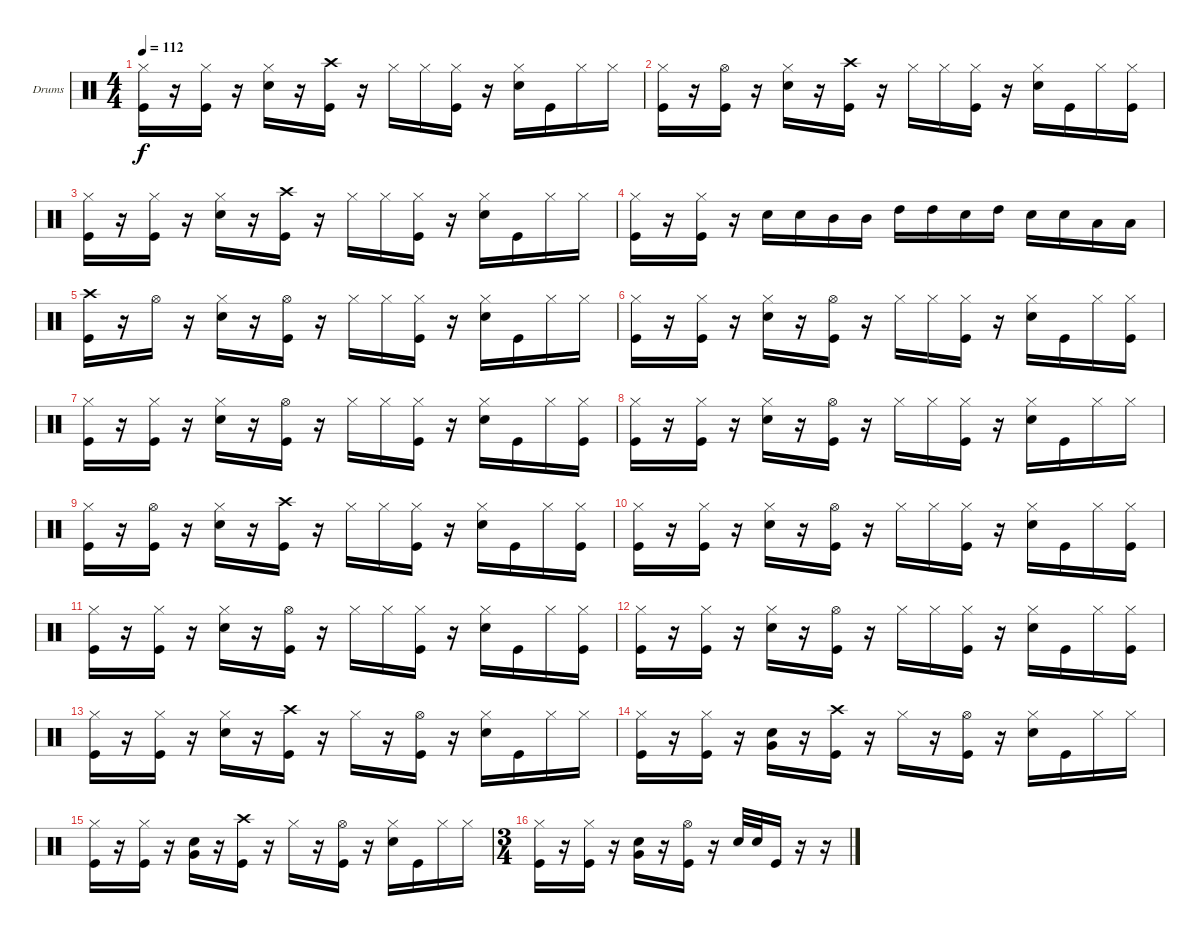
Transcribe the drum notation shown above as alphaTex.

\bracketExtendMode groupsimilarinstruments
\firstSystemTrackNameOrientation horizontal
\otherSystemsTrackNameOrientation horizontal
\track ("Drumkit" "Drums") {instrument percussion}
\staff {score}
\articulation defaults
\ts (4 4)
\tempo 112
\clef neutral
\ks c
("Hi-Hat (closed)" "Kick (hit)").16{dy f} r.16 ("Hi-Hat (closed)" "Kick (hit)").16 r.16 ("Hi-Hat (closed)" "Snare (hit) 2").16 r.16 ("Crash high (hit)" "Kick (hit)").16 r.16 "Hi-Hat (closed)".16 "Hi-Hat (closed)".16 ("Hi-Hat (closed)" "Kick (hit)").16 r.16 ("Hi-Hat (closed)" "Snare (hit) 2").16 "Kick (hit)".16 "Hi-Hat (closed)".16 "Hi-Hat (closed)".16 |
("Hi-Hat (closed)" "Kick (hit)").16 r.16 ("Hi-Hat (open)" "Kick (hit)").16 r.16 ("Hi-Hat (closed)" "Snare (hit) 2").16 r.16 ("Crash high (hit)" "Kick (hit)").16 r.16 "Hi-Hat (closed)".16 "Hi-Hat (closed)".16 ("Hi-Hat (closed)" "Kick (hit)").16 r.16 ("Hi-Hat (closed)" "Snare (hit) 2").16 "Kick (hit)".16 "Hi-Hat (closed)".16 ("Hi-Hat (closed)" "Kick (hit)").16 |
("Hi-Hat (closed)" "Kick (hit)").16 r.16 ("Hi-Hat (closed)" "Kick (hit)").16 r.16 ("Hi-Hat (closed)" "Snare (hit) 2").16 r.16 ("Crash high (hit)" "Kick (hit)").16 r.16 "Hi-Hat (closed)".16 "Hi-Hat (closed)".16 ("Hi-Hat (closed)" "Kick (hit)").16 r.16 ("Hi-Hat (closed)" "Snare (hit) 2").16 "Kick (hit)".16 "Hi-Hat (closed)".16 "Hi-Hat (closed)".16 |
("Hi-Hat (closed)" "Kick (hit)").16 r.16 ("Hi-Hat (closed)" "Kick (hit)").16 r.16 "Snare (hit) 2".16 "Snare (hit) 2".16 "Mid Tom (hit)".16 "Mid Tom (hit)".16 "High Tom (hit)".16 "High Tom (hit)".16 "Snare (hit) 2".16 "High Tom (hit)".16 "Snare (hit) 2".16 "Snare (hit) 2".16 "Low Tom (hit)".16 "Low Tom (hit)".16 |
("Crash high (hit)" "Kick (hit)").16 r.16 "Hi-Hat (open)".16 r.16 ("Hi-Hat (closed)" "Snare (hit) 2").16 r.16 ("Hi-Hat (open)" "Kick (hit)").16 r.16 "Hi-Hat (closed)".16 "Hi-Hat (closed)".16 ("Hi-Hat (closed)" "Kick (hit)").16 r.16 ("Hi-Hat (closed)" "Snare (hit) 2").16 "Kick (hit)".16 "Hi-Hat (closed)".16 "Hi-Hat (closed)".16 |
("Hi-Hat (closed)" "Kick (hit)").16 r.16 ("Hi-Hat (closed)" "Kick (hit)").16 r.16 ("Hi-Hat (closed)" "Snare (hit) 2").16 r.16 ("Hi-Hat (open)" "Kick (hit)").16 r.16 "Hi-Hat (closed)".16 "Hi-Hat (closed)".16 ("Hi-Hat (closed)" "Kick (hit)").16 r.16 ("Hi-Hat (closed)" "Snare (hit) 2").16 "Kick (hit)".16 "Hi-Hat (closed)".16 ("Hi-Hat (closed)" "Kick (hit)").16 |
("Hi-Hat (closed)" "Kick (hit)").16 r.16 ("Hi-Hat (closed)" "Kick (hit)").16 r.16 ("Hi-Hat (closed)" "Snare (hit) 2").16 r.16 ("Hi-Hat (open)" "Kick (hit)").16 r.16 "Hi-Hat (closed)".16 "Hi-Hat (closed)".16 ("Hi-Hat (closed)" "Kick (hit)").16 r.16 ("Hi-Hat (closed)" "Snare (hit) 2").16 "Kick (hit)".16 "Hi-Hat (closed)".16 ("Hi-Hat (closed)" "Kick (hit)").16 |
("Hi-Hat (closed)" "Kick (hit)").16 r.16 ("Hi-Hat (closed)" "Kick (hit)").16 r.16 ("Hi-Hat (closed)" "Snare (hit) 2").16 r.16 ("Hi-Hat (open)" "Kick (hit)").16 r.16 "Hi-Hat (closed)".16 "Hi-Hat (closed)".16 ("Hi-Hat (closed)" "Kick (hit)").16 r.16 ("Hi-Hat (closed)" "Snare (hit) 2").16 "Kick (hit)".16 "Hi-Hat (closed)".16 "Hi-Hat (closed)".16 |
("Hi-Hat (closed)" "Kick (hit)").16 r.16 ("Hi-Hat (open)" "Kick (hit)").16 r.16 ("Hi-Hat (closed)" "Snare (hit) 2").16 r.16 ("Crash high (hit)" "Kick (hit)").16 r.16 "Hi-Hat (closed)".16 "Hi-Hat (closed)".16 ("Hi-Hat (closed)" "Kick (hit)").16 r.16 ("Hi-Hat (closed)" "Snare (hit) 2").16 "Kick (hit)".16 "Hi-Hat (closed)".16 ("Hi-Hat (closed)" "Kick (hit)").16 |
("Hi-Hat (closed)" "Kick (hit)").16 r.16 ("Hi-Hat (closed)" "Kick (hit)").16 r.16 ("Hi-Hat (closed)" "Snare (hit) 2").16 r.16 ("Hi-Hat (open)" "Kick (hit)").16 r.16 "Hi-Hat (closed)".16 "Hi-Hat (closed)".16 ("Hi-Hat (closed)" "Kick (hit)").16 r.16 ("Hi-Hat (closed)" "Snare (hit) 2").16 "Kick (hit)".16 "Hi-Hat (closed)".16 ("Hi-Hat (closed)" "Kick (hit)").16 |
("Hi-Hat (closed)" "Kick (hit)").16 r.16 ("Hi-Hat (closed)" "Kick (hit)").16 r.16 ("Hi-Hat (closed)" "Snare (hit) 2").16 r.16 ("Hi-Hat (open)" "Kick (hit)").16 r.16 "Hi-Hat (closed)".16 "Hi-Hat (closed)".16 ("Hi-Hat (closed)" "Kick (hit)").16 r.16 ("Hi-Hat (closed)" "Snare (hit) 2").16 "Kick (hit)".16 "Hi-Hat (closed)".16 ("Hi-Hat (closed)" "Kick (hit)").16 |
("Hi-Hat (closed)" "Kick (hit)").16 r.16 ("Hi-Hat (closed)" "Kick (hit)").16 r.16 ("Hi-Hat (closed)" "Snare (hit) 2").16 r.16 ("Hi-Hat (open)" "Kick (hit)").16 r.16 "Hi-Hat (closed)".16 "Hi-Hat (closed)".16 ("Hi-Hat (closed)" "Kick (hit)").16 r.16 ("Hi-Hat (closed)" "Snare (hit) 2").16 "Kick (hit)".16 "Hi-Hat (closed)".16 ("Hi-Hat (closed)" "Kick (hit)").16 |
("Hi-Hat (closed)" "Kick (hit)").16 r.16 ("Hi-Hat (closed)" "Kick (hit)").16 r.16 ("Hi-Hat (closed)" "Snare (hit) 2").16 r.16 ("Crash high (hit)" "Kick (hit)").16 r.16 "Hi-Hat (closed)".16 r.16 ("Hi-Hat (open)" "Kick (hit)").16 r.16 ("Hi-Hat (closed)" "Snare (hit) 2").16 "Kick (hit)".16 "Hi-Hat (closed)".16 "Hi-Hat (closed)".16 |
("Hi-Hat (closed)" "Kick (hit)").16 r.16 ("Hi-Hat (closed)" "Kick (hit)").16 r.16 ("Snare (hit) 2" "Very Low Tom (hit)").16 r.16 ("Crash high (hit)" "Kick (hit)").16 r.16 "Hi-Hat (closed)".16 r.16 ("Hi-Hat (open)" "Kick (hit)").16 r.16 ("Hi-Hat (closed)" "Snare (hit) 2").16 "Kick (hit)".16 "Hi-Hat (closed)".16 "Hi-Hat (closed)".16 |
("Hi-Hat (closed)" "Kick (hit)").16 r.16 ("Hi-Hat (closed)" "Kick (hit)").16 r.16 ("Snare (hit) 2" "Very Low Tom (hit)").16 r.16 ("Crash high (hit)" "Kick (hit)").16 r.16 "Hi-Hat (closed)".16 r.16 ("Hi-Hat (open)" "Kick (hit)").16 r.16 ("Hi-Hat (closed)" "Snare (hit) 2").16 "Kick (hit)".16 "Hi-Hat (closed)".16 "Hi-Hat (closed)".16 |
\ts (3 4)
\beaming (8 2 2 2)
("Hi-Hat (closed)" "Kick (hit)").16 r.16 ("Hi-Hat (closed)" "Kick (hit)").16 r.16 ("Snare (hit) 2" "Very Low Tom (hit)").16 r.16 ("Hi-Hat (open)" "Kick (hit)").16 r.16 "Snare (hit) 2".32 "Snare (hit) 2".32 "Kick (hit)".16 r.16 r.16
